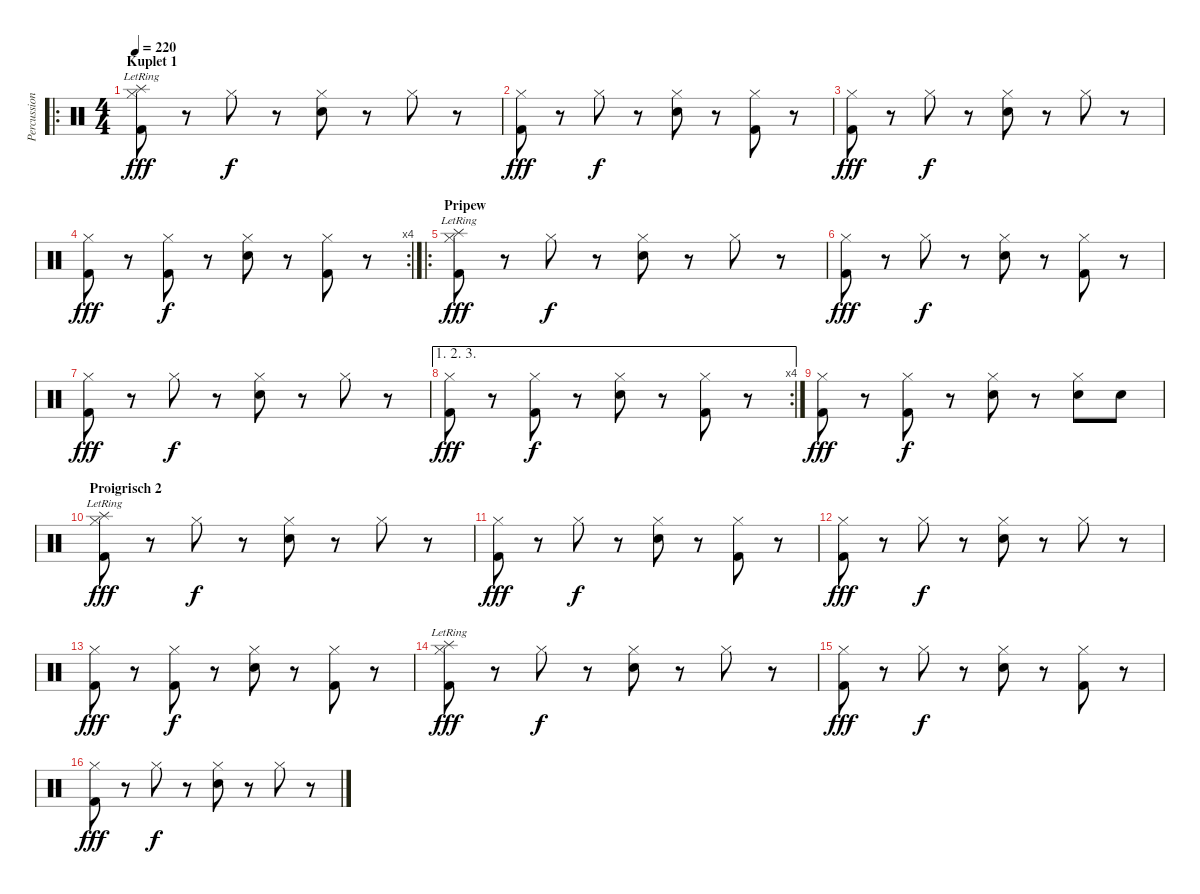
\track ("Percussion" "Percussion") {instrument percussion}
\staff {score}
\articulation defaults
\ro
\ts (4 4)
\section ("" "Kuplet 1")
\tempo 220
\clef neutral
\ks c
("Hi-Hat (closed)" "Splash (hit)"{lr} "Kick (hit) 2").8{dy fff} r.8 "Hi-Hat (closed)".8{dy f} r.8 ("Hi-Hat (closed)" "Snare (hit) 2").8 r.8 "Hi-Hat (closed)".8 r.8 |
("Hi-Hat (closed)" "Kick (hit) 2").8{dy fff} r.8 "Hi-Hat (closed)".8{dy f} r.8 ("Hi-Hat (closed)" "Snare (hit) 2").8 r.8 ("Hi-Hat (closed)" "Kick (hit) 2").8 r.8 |
("Hi-Hat (closed)" "Kick (hit) 2").8{dy fff} r.8 "Hi-Hat (closed)".8{dy f} r.8 ("Hi-Hat (closed)" "Snare (hit) 2").8 r.8 "Hi-Hat (closed)".8 r.8 |
\rc 4
("Hi-Hat (closed)" "Kick (hit) 2").8{dy fff} r.8 ("Hi-Hat (closed)" "Kick (hit) 2").8{dy f} r.8 ("Hi-Hat (closed)" "Snare (hit) 2").8 r.8 ("Hi-Hat (closed)" "Kick (hit) 2").8 r.8 |
\ro
\section ("" "Pripew")
("Hi-Hat (closed)" "Splash (hit)"{lr} "Kick (hit) 2").8{dy fff} r.8 "Hi-Hat (closed)".8{dy f} r.8 ("Hi-Hat (closed)" "Snare (hit) 2").8 r.8 "Hi-Hat (closed)".8 r.8 |
("Hi-Hat (closed)" "Kick (hit) 2").8{dy fff} r.8 "Hi-Hat (closed)".8{dy f} r.8 ("Hi-Hat (closed)" "Snare (hit) 2").8 r.8 ("Hi-Hat (closed)" "Kick (hit) 2").8 r.8 |
("Hi-Hat (closed)" "Kick (hit) 2").8{dy fff} r.8 "Hi-Hat (closed)".8{dy f} r.8 ("Hi-Hat (closed)" "Snare (hit) 2").8 r.8 "Hi-Hat (closed)".8 r.8 |
\ae (1 2 3)
\rc 4
("Hi-Hat (closed)" "Kick (hit) 2").8{dy fff} r.8 ("Hi-Hat (closed)" "Kick (hit) 2").8{dy f} r.8 ("Hi-Hat (closed)" "Snare (hit) 2").8 r.8 ("Hi-Hat (closed)" "Kick (hit) 2").8 r.8 |
("Hi-Hat (closed)" "Kick (hit) 2").8{dy fff} r.8 ("Hi-Hat (closed)" "Kick (hit) 2").8{dy f} r.8 ("Hi-Hat (closed)" "Snare (hit) 2").8 r.8 ("Hi-Hat (closed)" "Snare (hit) 2").8 "Snare (hit) 2".8 |
\section ("" "Proigrisch 2")
("Hi-Hat (closed)" "Splash (hit)"{lr} "Kick (hit) 2").8{dy fff} r.8 "Hi-Hat (closed)".8{dy f} r.8 ("Hi-Hat (closed)" "Snare (hit) 2").8 r.8 "Hi-Hat (closed)".8 r.8 |
("Hi-Hat (closed)" "Kick (hit) 2").8{dy fff} r.8 "Hi-Hat (closed)".8{dy f} r.8 ("Hi-Hat (closed)" "Snare (hit) 2").8 r.8 ("Hi-Hat (closed)" "Kick (hit) 2").8 r.8 |
("Hi-Hat (closed)" "Kick (hit) 2").8{dy fff} r.8 "Hi-Hat (closed)".8{dy f} r.8 ("Hi-Hat (closed)" "Snare (hit) 2").8 r.8 "Hi-Hat (closed)".8 r.8 |
("Hi-Hat (closed)" "Kick (hit) 2").8{dy fff} r.8 ("Hi-Hat (closed)" "Kick (hit) 2").8{dy f} r.8 ("Hi-Hat (closed)" "Snare (hit) 2").8 r.8 ("Hi-Hat (closed)" "Kick (hit) 2").8 r.8 |
("Hi-Hat (closed)" "Splash (hit)"{lr} "Kick (hit) 2").8{dy fff} r.8 "Hi-Hat (closed)".8{dy f} r.8 ("Hi-Hat (closed)" "Snare (hit) 2").8 r.8 "Hi-Hat (closed)".8 r.8 |
("Hi-Hat (closed)" "Kick (hit) 2").8{dy fff} r.8 "Hi-Hat (closed)".8{dy f} r.8 ("Hi-Hat (closed)" "Snare (hit) 2").8 r.8 ("Hi-Hat (closed)" "Kick (hit) 2").8 r.8 |
("Hi-Hat (closed)" "Kick (hit) 2").8{dy fff} r.8 "Hi-Hat (closed)".8{dy f} r.8 ("Hi-Hat (closed)" "Snare (hit) 2").8 r.8 "Hi-Hat (closed)".8 r.8
